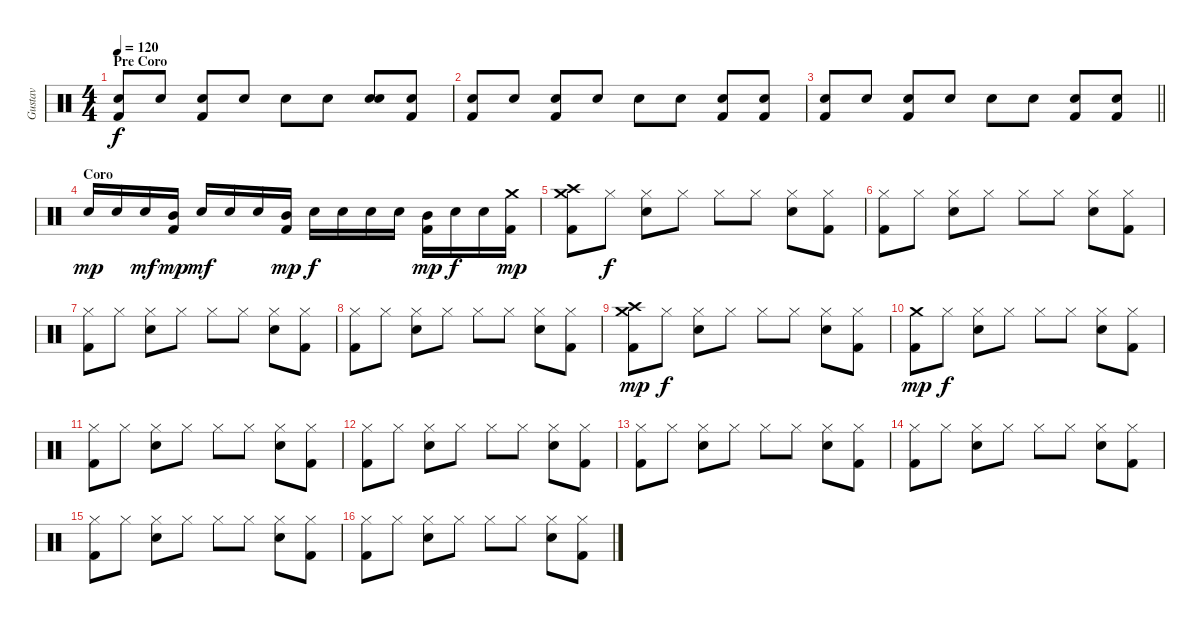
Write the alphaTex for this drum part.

\track ("Gustav" "Gustav") {instrument percussion}
\staff {score}
\articulation defaults
\ts (4 4)
\section ("" "Pre Coro")
\tempo 120
\clef neutral
\ks c
("Kick (hit) 2" "Electric Snare (hit)").8{dy f} "Electric Snare (hit)".8 ("Kick (hit) 2" "Electric Snare (hit)").8 "Electric Snare (hit)".8 "Electric Snare (hit)".8 "Electric Snare (hit)".8 ("Snare (hit) 2" "Electric Snare (hit)").8 ("Electric Snare (hit)" "Kick (hit) 2").8 |
("Kick (hit) 2" "Electric Snare (hit)").8 "Electric Snare (hit)".8 ("Kick (hit) 2" "Electric Snare (hit)").8 "Electric Snare (hit)".8 "Electric Snare (hit)".8 "Electric Snare (hit)".8 ("Kick (hit) 2" "Electric Snare (hit)").8 ("Electric Snare (hit)" "Kick (hit) 2").8 |
\barLineRight lightlight
("Kick (hit) 2" "Electric Snare (hit)").8 "Electric Snare (hit)".8 ("Kick (hit) 2" "Electric Snare (hit)").8 "Electric Snare (hit)".8 "Electric Snare (hit)".8 "Electric Snare (hit)".8 ("Kick (hit) 2" "Electric Snare (hit)").8 ("Electric Snare (hit)" "Kick (hit) 2").8 |
\section ("" "Coro")
"Snare (hit) 2".16{dy mp} "Snare (hit) 2".16 "Snare (hit) 2".16{dy mf} ("Mid Tom (hit)" "Kick (hit) 2").16{dy mp} "Snare (hit) 2".16{dy mf} "Snare (hit) 2".16 "Snare (hit) 2".16 ("Mid Tom (hit)" "Kick (hit) 2").16{dy mp} "Snare (hit) 2".16{dy f} "Snare (hit) 2".16 "Snare (hit) 2".16 "Snare (hit) 2".16 ("Mid Tom (hit)" "Kick (hit) 2").16{dy mp} "Snare (hit) 2".16{dy f} "Snare (hit) 2".16 ("Kick (hit) 2" "Crash medium (hit)").16{dy mp} |
("Kick (hit) 2" "Crash high (hit)" "Crash medium (hit)").8 "Hi-Hat (closed)".8{dy f} ("Hi-Hat (closed)" "Snare (hit) 2").8 "Hi-Hat (closed)".8 "Hi-Hat (closed)".8 "Hi-Hat (closed)".8 ("Snare (hit) 2" "Hi-Hat (closed)").8 ("Hi-Hat (closed)" "Kick (hit) 2").8 |
("Kick (hit) 2" "Hi-Hat (closed)").8 "Hi-Hat (closed)".8 ("Hi-Hat (closed)" "Snare (hit) 2").8 "Hi-Hat (closed)".8 "Hi-Hat (closed)".8 "Hi-Hat (closed)".8 ("Snare (hit) 2" "Hi-Hat (closed)").8 ("Hi-Hat (closed)" "Kick (hit) 2").8 |
("Kick (hit) 2" "Hi-Hat (closed)").8 "Hi-Hat (closed)".8 ("Hi-Hat (closed)" "Snare (hit) 2").8 "Hi-Hat (closed)".8 "Hi-Hat (closed)".8 "Hi-Hat (closed)".8 ("Snare (hit) 2" "Hi-Hat (closed)").8 ("Hi-Hat (closed)" "Kick (hit) 2").8 |
("Kick (hit) 2" "Hi-Hat (closed)").8 "Hi-Hat (closed)".8 ("Hi-Hat (closed)" "Snare (hit) 2").8 "Hi-Hat (closed)".8 "Hi-Hat (closed)".8 "Hi-Hat (closed)".8 ("Snare (hit) 2" "Hi-Hat (closed)").8 ("Hi-Hat (closed)" "Kick (hit) 2").8 |
("Kick (hit) 2" "Crash medium (hit)" "Crash high (hit)").8{dy mp} "Hi-Hat (closed)".8{dy f} ("Hi-Hat (closed)" "Snare (hit) 2").8 "Hi-Hat (closed)".8 "Hi-Hat (closed)".8 "Hi-Hat (closed)".8 ("Snare (hit) 2" "Hi-Hat (closed)").8 ("Hi-Hat (closed)" "Kick (hit) 2").8 |
("Kick (hit) 2" "Crash medium (hit)").8{dy mp} "Hi-Hat (closed)".8{dy f} ("Hi-Hat (closed)" "Snare (hit) 2").8 "Hi-Hat (closed)".8 "Hi-Hat (closed)".8 "Hi-Hat (closed)".8 ("Snare (hit) 2" "Hi-Hat (closed)").8 ("Hi-Hat (closed)" "Kick (hit) 2").8 |
("Kick (hit) 2" "Hi-Hat (closed)").8 "Hi-Hat (closed)".8 ("Hi-Hat (closed)" "Snare (hit) 2").8 "Hi-Hat (closed)".8 "Hi-Hat (closed)".8 "Hi-Hat (closed)".8 ("Snare (hit) 2" "Hi-Hat (closed)").8 ("Hi-Hat (closed)" "Kick (hit) 2").8 |
("Kick (hit) 2" "Hi-Hat (closed)").8 "Hi-Hat (closed)".8 ("Hi-Hat (closed)" "Snare (hit) 2").8 "Hi-Hat (closed)".8 "Hi-Hat (closed)".8 "Hi-Hat (closed)".8 ("Snare (hit) 2" "Hi-Hat (closed)").8 ("Hi-Hat (closed)" "Kick (hit) 2").8 |
("Kick (hit) 2" "Hi-Hat (closed)").8 "Hi-Hat (closed)".8 ("Hi-Hat (closed)" "Snare (hit) 2").8 "Hi-Hat (closed)".8 "Hi-Hat (closed)".8 "Hi-Hat (closed)".8 ("Snare (hit) 2" "Hi-Hat (closed)").8 ("Hi-Hat (closed)" "Kick (hit) 2").8 |
("Kick (hit) 2" "Hi-Hat (closed)").8 "Hi-Hat (closed)".8 ("Hi-Hat (closed)" "Snare (hit) 2").8 "Hi-Hat (closed)".8 "Hi-Hat (closed)".8 "Hi-Hat (closed)".8 ("Snare (hit) 2" "Hi-Hat (closed)").8 ("Hi-Hat (closed)" "Kick (hit) 2").8 |
("Kick (hit) 2" "Hi-Hat (closed)").8 "Hi-Hat (closed)".8 ("Hi-Hat (closed)" "Snare (hit) 2").8 "Hi-Hat (closed)".8 "Hi-Hat (closed)".8 "Hi-Hat (closed)".8 ("Snare (hit) 2" "Hi-Hat (closed)").8 ("Hi-Hat (closed)" "Kick (hit) 2").8 |
("Kick (hit) 2" "Hi-Hat (closed)").8 "Hi-Hat (closed)".8 ("Hi-Hat (closed)" "Snare (hit) 2").8 "Hi-Hat (closed)".8 "Hi-Hat (closed)".8 "Hi-Hat (closed)".8 ("Snare (hit) 2" "Hi-Hat (closed)").8 ("Hi-Hat (closed)" "Kick (hit) 2").8
